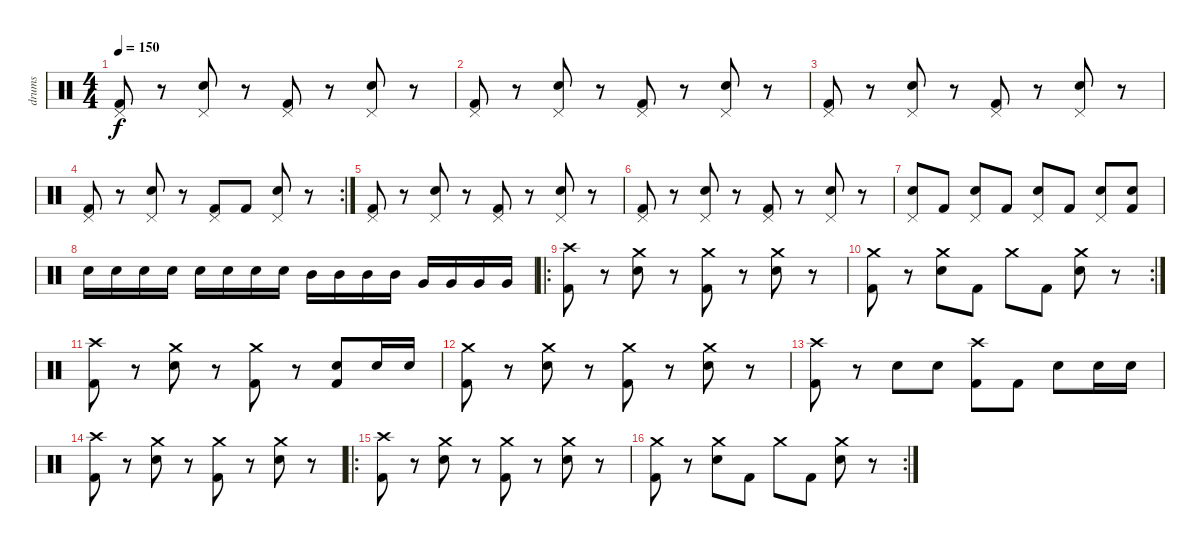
\track ("drums" "drums") {instrument percussion}
\staff {score}
\articulation defaults
\ts (4 4)
\tempo 150
\clef neutral
\ks c
("Pedal Hi-Hat (hit)" "Kick (hit) 2").8{dy f} r.8 ("Pedal Hi-Hat (hit)" "Snare (hit) 2").8 r.8 ("Pedal Hi-Hat (hit)" "Kick (hit) 2").8 r.8 ("Pedal Hi-Hat (hit)" "Snare (hit) 2").8 r.8 |
("Pedal Hi-Hat (hit)" "Kick (hit) 2").8 r.8 ("Pedal Hi-Hat (hit)" "Snare (hit) 2").8 r.8 ("Pedal Hi-Hat (hit)" "Kick (hit) 2").8 r.8 ("Pedal Hi-Hat (hit)" "Snare (hit) 2").8 r.8 |
("Pedal Hi-Hat (hit)" "Kick (hit) 2").8 r.8 ("Pedal Hi-Hat (hit)" "Snare (hit) 2").8 r.8 ("Pedal Hi-Hat (hit)" "Kick (hit) 2").8 r.8 ("Pedal Hi-Hat (hit)" "Snare (hit) 2").8 r.8 |
\rc 2
("Pedal Hi-Hat (hit)" "Kick (hit) 2").8 r.8 ("Pedal Hi-Hat (hit)" "Snare (hit) 2").8 r.8 ("Pedal Hi-Hat (hit)" "Kick (hit) 2").8 "Kick (hit) 2".8 ("Pedal Hi-Hat (hit)" "Snare (hit) 2").8 r.8 |
("Pedal Hi-Hat (hit)" "Kick (hit) 2").8 r.8 ("Pedal Hi-Hat (hit)" "Snare (hit) 2").8 r.8 ("Pedal Hi-Hat (hit)" "Kick (hit) 2").8 r.8 ("Pedal Hi-Hat (hit)" "Snare (hit) 2").8 r.8 |
("Pedal Hi-Hat (hit)" "Kick (hit) 2").8 r.8 ("Pedal Hi-Hat (hit)" "Snare (hit) 2").8 r.8 ("Pedal Hi-Hat (hit)" "Kick (hit) 2").8 r.8 ("Pedal Hi-Hat (hit)" "Snare (hit) 2").8 r.8 |
("Pedal Hi-Hat (hit)" "Snare (hit) 2").8 "Kick (hit) 2".8 ("Pedal Hi-Hat (hit)" "Snare (hit) 2").8 "Kick (hit) 2".8 ("Pedal Hi-Hat (hit)" "Snare (hit) 2").8 "Kick (hit) 2".8 ("Pedal Hi-Hat (hit)" "Snare (hit) 2").8 ("Snare (hit) 2" "Kick (hit) 2").8 |
"Snare (hit) 2".16 "Snare (hit) 2".16 "Snare (hit) 2".16 "Snare (hit) 2".16 "Snare (hit) 2".16 "Snare (hit) 2".16 "Snare (hit) 2".16 "Snare (hit) 2".16 "Mid Tom (hit)".16 "Mid Tom (hit)".16 "Mid Tom (hit)".16 "Mid Tom (hit)".16 "Very Low Tom (hit)".16 "Very Low Tom (hit)".16 "Very Low Tom (hit)".16 "Very Low Tom (hit)".16 |
\ro
("Crash high (hit)" "Kick (hit) 2").8 r.8 ("Crash medium (hit)" "Snare (hit) 2").8 r.8 ("Crash medium (hit)" "Kick (hit) 2").8 r.8 ("Crash medium (hit)" "Snare (hit) 2").8 r.8 |
\rc 2
("Crash medium (hit)" "Kick (hit) 2").8 r.8 ("Crash medium (hit)" "Snare (hit) 2").8 "Kick (hit) 2".8 "Crash medium (hit)".8 "Kick (hit) 2".8 ("Crash medium (hit)" "Snare (hit) 2").8 r.8 |
("Crash high (hit)" "Kick (hit) 2").8 r.8 ("Crash medium (hit)" "Snare (hit) 2").8 r.8 ("Crash medium (hit)" "Kick (hit) 2").8 r.8 ("Snare (hit) 2" "Kick (hit) 2").8 "Snare (hit) 2".16 "Snare (hit) 2".16 |
("Crash medium (hit)" "Kick (hit) 2").8 r.8 ("Crash medium (hit)" "Snare (hit) 2").8 r.8 ("Crash medium (hit)" "Kick (hit) 2").8 r.8 ("Crash medium (hit)" "Snare (hit) 2").8 r.8 |
("Crash high (hit)" "Kick (hit) 2").8 r.8 "Snare (hit) 2".8 "Snare (hit) 2".8 ("Crash high (hit)" "Kick (hit) 2").8 "Kick (hit) 2".8 "Snare (hit) 2".8 "Snare (hit) 2".16 "Snare (hit) 2".16 |
("Crash high (hit)" "Kick (hit) 2").8 r.8 ("Crash medium (hit)" "Snare (hit) 2").8 r.8 ("Crash medium (hit)" "Kick (hit) 2").8 r.8 ("Crash medium (hit)" "Snare (hit) 2").8 r.8 |
\ro
("Crash high (hit)" "Kick (hit) 2").8 r.8 ("Crash medium (hit)" "Snare (hit) 2").8 r.8 ("Crash medium (hit)" "Kick (hit) 2").8 r.8 ("Crash medium (hit)" "Snare (hit) 2").8 r.8 |
\rc 2
("Crash medium (hit)" "Kick (hit) 2").8 r.8 ("Crash medium (hit)" "Snare (hit) 2").8 "Kick (hit) 2".8 "Crash medium (hit)".8 "Kick (hit) 2".8 ("Crash medium (hit)" "Snare (hit) 2").8 r.8
